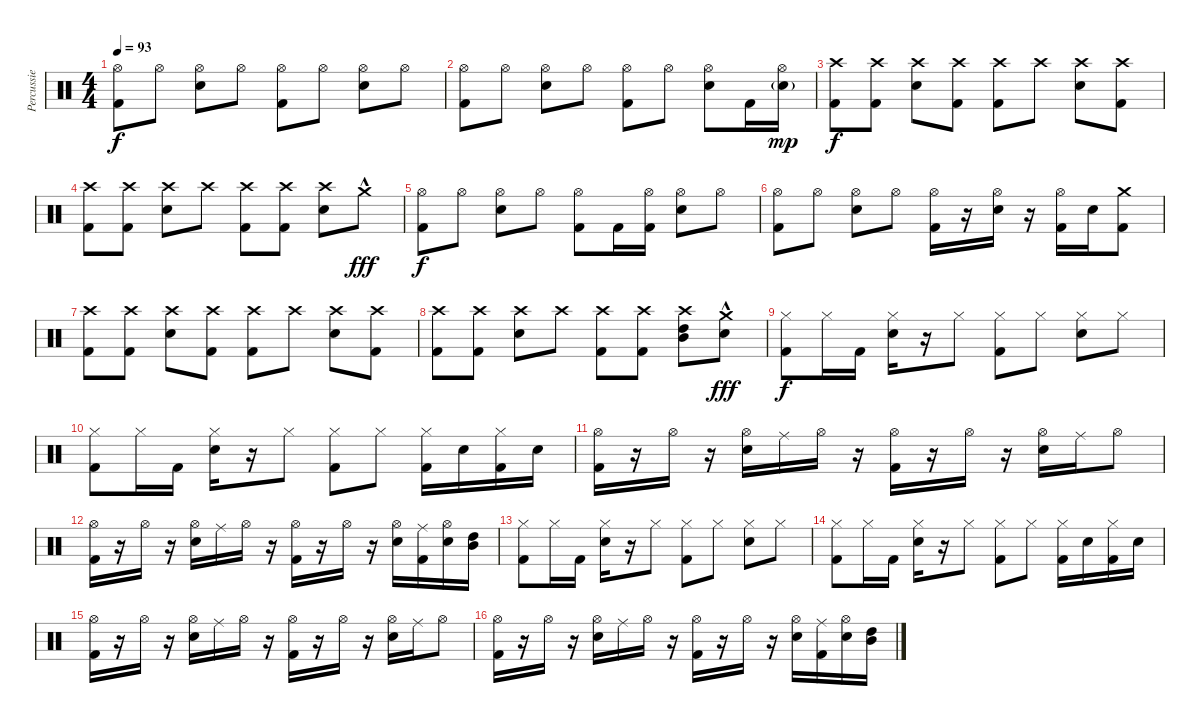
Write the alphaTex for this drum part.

\track ("Percussie" "Percussie") {instrument percussion}
\staff {score}
\articulation defaults
\ts (4 4)
\tempo 93
\clef neutral
\ks c
("Hi-Hat (open)" "Kick (hit) 2").8{dy f} "Hi-Hat (open)".8 ("Hi-Hat (open)" "Electric Snare (hit)").8 "Hi-Hat (open)".8 ("Hi-Hat (open)" "Kick (hit) 2").8 "Hi-Hat (open)".8 ("Hi-Hat (open)" "Electric Snare (hit)").8 "Hi-Hat (open)".8 |
("Hi-Hat (open)" "Kick (hit) 2").8 "Hi-Hat (open)".8 ("Hi-Hat (open)" "Electric Snare (hit)").8 "Hi-Hat (open)".8 ("Hi-Hat (open)" "Kick (hit) 2").8 "Hi-Hat (open)".8 ("Hi-Hat (open)" "Electric Snare (hit)").8 "Kick (hit) 2".16 ("Hi-Hat (open)" "Electric Snare (hit)"{g}).16{dy mp} |
("Crash high (hit)" "Kick (hit) 2").8{dy f} ("Crash high (hit)" "Kick (hit) 2").8 ("Crash high (hit)" "Electric Snare (hit)").8 ("Crash high (hit)" "Kick (hit) 2").8 ("Crash high (hit)" "Kick (hit) 2").8 "Crash high (hit)".8 ("Crash high (hit)" "Electric Snare (hit)").8 ("Crash high (hit)" "Kick (hit) 2").8 |
("Crash high (hit)" "Kick (hit) 2").8 ("Crash high (hit)" "Kick (hit) 2").8 ("Crash high (hit)" "Electric Snare (hit)").8 "Crash high (hit)".8 ("Crash high (hit)" "Kick (hit) 2").8 ("Crash high (hit)" "Kick (hit) 2").8 ("Crash high (hit)" "Electric Snare (hit)").8 "Crash medium (hit)"{hac}.8{dy fff} |
("Hi-Hat (open)" "Kick (hit) 2").8{dy f} "Hi-Hat (open)".8 ("Hi-Hat (open)" "Electric Snare (hit)").8 "Hi-Hat (open)".8 ("Hi-Hat (open)" "Kick (hit) 2").8 "Kick (hit) 2".16 ("Hi-Hat (open)" "Kick (hit) 2").16 ("Hi-Hat (open)" "Electric Snare (hit)").8 "Hi-Hat (open)".8 |
("Hi-Hat (open)" "Kick (hit) 2").8 "Hi-Hat (open)".8 ("Hi-Hat (open)" "Electric Snare (hit)").8 "Hi-Hat (open)".8 ("Hi-Hat (open)" "Kick (hit) 2").16 r.16 ("Hi-Hat (open)" "Electric Snare (hit)").16 r.16 ("Hi-Hat (open)" "Kick (hit) 2").16 "Electric Snare (hit)".16 ("Crash medium (hit)" "Kick (hit) 2").8 |
("Crash high (hit)" "Kick (hit) 2").8 ("Crash high (hit)" "Kick (hit) 2").8 ("Crash high (hit)" "Electric Snare (hit)").8 ("Crash high (hit)" "Kick (hit) 2").8 ("Crash high (hit)" "Kick (hit) 2").8 "Crash high (hit)".8 ("Crash high (hit)" "Electric Snare (hit)").8 ("Crash high (hit)" "Kick (hit) 2").8 |
("Crash high (hit)" "Kick (hit) 2").8 ("Crash high (hit)" "Kick (hit) 2").8 ("Crash high (hit)" "Electric Snare (hit)").8 "Crash high (hit)".8 ("Crash high (hit)" "Kick (hit) 2").8 ("Crash high (hit)" "Kick (hit) 2").8 ("Crash high (hit)" "Mid Tom (hit)" "High Tom (hit)").8 ("Crash medium (hit)"{hac} "Electric Snare (hit)").8{dy fff} |
("Hi-Hat (closed)" "Kick (hit) 2").8{dy f} "Hi-Hat (closed)".16 "Kick (hit) 2".16 ("Hi-Hat (closed)" "Electric Snare (hit)").16 r.16 "Hi-Hat (closed)".8 ("Hi-Hat (closed)" "Kick (hit) 2").8 "Hi-Hat (closed)".8 ("Hi-Hat (closed)" "Electric Snare (hit)").8 "Hi-Hat (closed)".8 |
("Hi-Hat (closed)" "Kick (hit) 2").8 "Hi-Hat (closed)".16 "Kick (hit) 2".16 ("Hi-Hat (closed)" "Electric Snare (hit)").16 r.16 "Hi-Hat (closed)".8 ("Hi-Hat (closed)" "Kick (hit) 2").8 "Hi-Hat (closed)".8 ("Hi-Hat (closed)" "Kick (hit) 2").16 "Electric Snare (hit)".16 ("Hi-Hat (closed)" "Kick (hit) 2").16 "Electric Snare (hit)".16 |
("Hi-Hat (open)" "Kick (hit) 2").16 r.16 "Hi-Hat (open)".16 r.16 ("Hi-Hat (open)" "Electric Snare (hit)").16 "Ride (middle)".16 "Hi-Hat (open)".16 r.16 ("Hi-Hat (open)" "Kick (hit) 2").16 r.16 "Hi-Hat (open)".16 r.16 ("Hi-Hat (open)" "Electric Snare (hit)").16 "Ride (middle)".16 "Hi-Hat (open)".8 |
("Hi-Hat (open)" "Kick (hit) 2").16 r.16 "Hi-Hat (open)".16 r.16 ("Hi-Hat (open)" "Electric Snare (hit)").16 "Ride (middle)".16 "Hi-Hat (open)".16 r.16 ("Hi-Hat (open)" "Kick (hit) 2").16 r.16 "Hi-Hat (open)".16 r.16 ("Hi-Hat (open)" "Electric Snare (hit)").16 ("Ride (middle)" "Kick (hit) 2").16 ("Hi-Hat (open)" "Electric Snare (hit)").16 ("High Tom (hit)" "Mid Tom (hit)").16 |
("Hi-Hat (closed)" "Kick (hit) 2").8 "Hi-Hat (closed)".16 "Kick (hit) 2".16 ("Hi-Hat (closed)" "Electric Snare (hit)").16 r.16 "Hi-Hat (closed)".8 ("Hi-Hat (closed)" "Kick (hit) 2").8 "Hi-Hat (closed)".8 ("Hi-Hat (closed)" "Electric Snare (hit)").8 "Hi-Hat (closed)".8 |
("Hi-Hat (closed)" "Kick (hit) 2").8 "Hi-Hat (closed)".16 "Kick (hit) 2".16 ("Hi-Hat (closed)" "Electric Snare (hit)").16 r.16 "Hi-Hat (closed)".8 ("Hi-Hat (closed)" "Kick (hit) 2").8 "Hi-Hat (closed)".8 ("Hi-Hat (closed)" "Kick (hit) 2").16 "Electric Snare (hit)".16 ("Hi-Hat (closed)" "Kick (hit) 2").16 "Electric Snare (hit)".16 |
("Hi-Hat (open)" "Kick (hit) 2").16 r.16 "Hi-Hat (open)".16 r.16 ("Hi-Hat (open)" "Electric Snare (hit)").16 "Ride (middle)".16 "Hi-Hat (open)".16 r.16 ("Hi-Hat (open)" "Kick (hit) 2").16 r.16 "Hi-Hat (open)".16 r.16 ("Hi-Hat (open)" "Electric Snare (hit)").16 "Ride (middle)".16 "Hi-Hat (open)".8 |
("Hi-Hat (open)" "Kick (hit) 2").16 r.16 "Hi-Hat (open)".16 r.16 ("Hi-Hat (open)" "Electric Snare (hit)").16 "Ride (middle)".16 "Hi-Hat (open)".16 r.16 ("Hi-Hat (open)" "Kick (hit) 2").16 r.16 "Hi-Hat (open)".16 r.16 ("Hi-Hat (open)" "Electric Snare (hit)").16 ("Ride (middle)" "Kick (hit) 2").16 ("Hi-Hat (open)" "Electric Snare (hit)").16 ("High Tom (hit)" "Mid Tom (hit)").16
